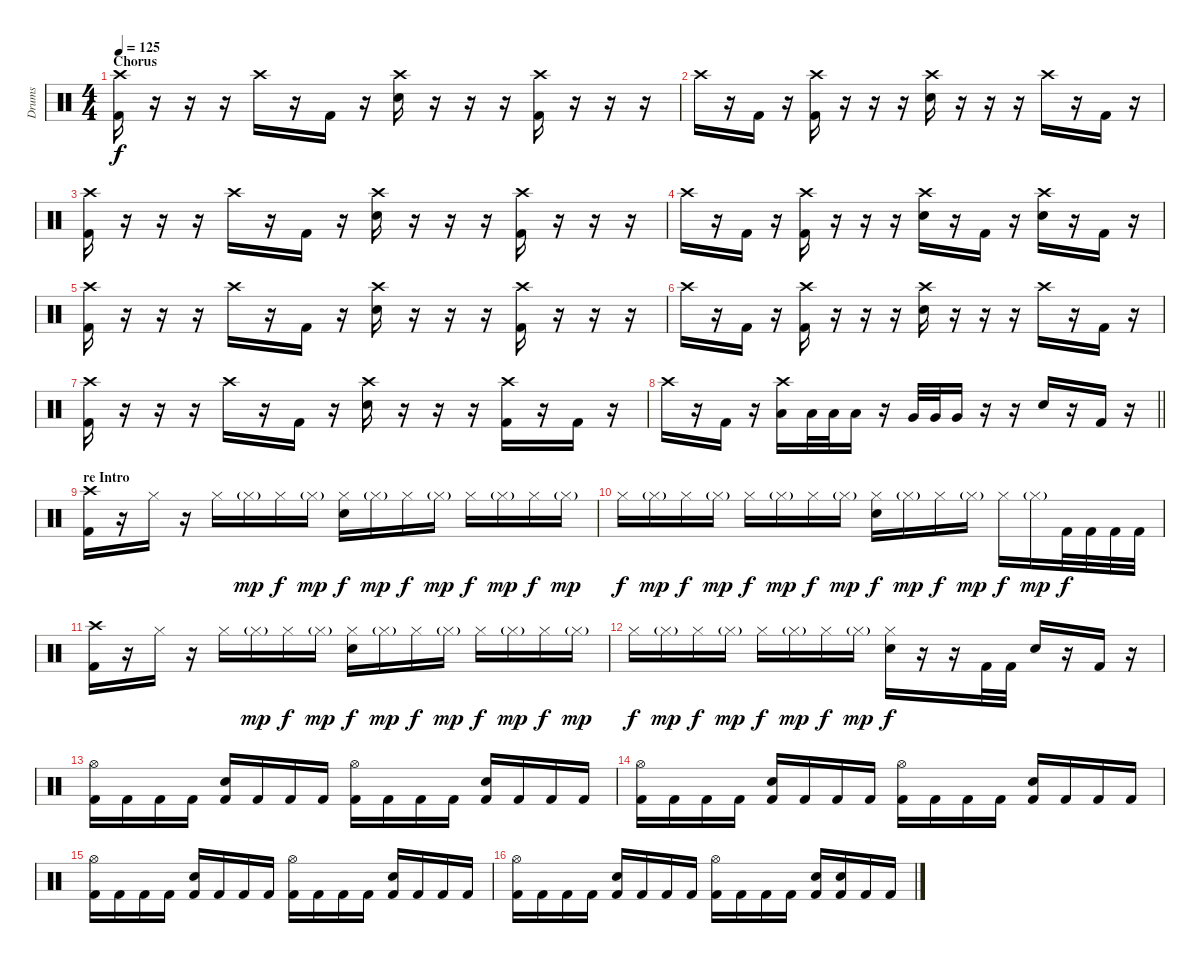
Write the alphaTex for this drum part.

\track ("Drums" "Drums") {instrument percussion}
\staff {score}
\articulation defaults
\ts (4 4)
\section ("" "Chorus")
\tempo 125
\clef neutral
\ks c
("Crash high (hit)" "Kick (hit) 2").16{dy f} r.16 r.16 r.16 "Crash high (hit)".16 r.16 "Kick (hit) 2".16 r.16 ("Crash high (hit)" "Electric Snare (hit)").16 r.16 r.16 r.16 ("Crash high (hit)" "Kick (hit) 2").16 r.16 r.16 r.16 |
"Crash high (hit)".16 r.16 "Kick (hit) 2".16 r.16 ("Crash high (hit)" "Kick (hit) 2").16 r.16 r.16 r.16 ("Crash high (hit)" "Electric Snare (hit)").16 r.16 r.16 r.16 "Crash high (hit)".16 r.16 "Kick (hit) 2".16 r.16 |
("Crash high (hit)" "Kick (hit) 2").16 r.16 r.16 r.16 "Crash high (hit)".16 r.16 "Kick (hit) 2".16 r.16 ("Crash high (hit)" "Electric Snare (hit)").16 r.16 r.16 r.16 ("Crash high (hit)" "Kick (hit) 2").16 r.16 r.16 r.16 |
"Crash high (hit)".16 r.16 "Kick (hit) 2".16 r.16 ("Crash high (hit)" "Kick (hit) 2").16 r.16 r.16 r.16 ("Crash high (hit)" "Electric Snare (hit)").16 r.16 "Kick (hit) 2".16 r.16 ("Crash high (hit)" "Electric Snare (hit)").16 r.16 "Kick (hit) 2".16 r.16 |
("Crash high (hit)" "Kick (hit) 2").16 r.16 r.16 r.16 "Crash high (hit)".16 r.16 "Kick (hit) 2".16 r.16 ("Crash high (hit)" "Electric Snare (hit)").16 r.16 r.16 r.16 ("Crash high (hit)" "Kick (hit) 2").16 r.16 r.16 r.16 |
"Crash high (hit)".16 r.16 "Kick (hit) 2".16 r.16 ("Crash high (hit)" "Kick (hit) 2").16 r.16 r.16 r.16 ("Crash high (hit)" "Electric Snare (hit)").16 r.16 r.16 r.16 "Crash high (hit)".16 r.16 "Kick (hit) 2".16 r.16 |
("Crash high (hit)" "Kick (hit) 2").16 r.16 r.16 r.16 "Crash high (hit)".16 r.16 "Kick (hit) 2".16 r.16 ("Crash high (hit)" "Electric Snare (hit)").16 r.16 r.16 r.16 ("Crash high (hit)" "Kick (hit) 2").16 r.16 "Kick (hit) 2".16 r.16 |
\barLineRight lightlight "Crash high (hit)".16
r.16 "Kick (hit) 2".16 r.16 ("Crash high (hit)" "Low Tom (hit)").16 "Low Tom (hit)".32 "Low Tom (hit)".32 "Low Tom (hit)".16 r.16 "Very Low Tom (hit)".32 "Very Low Tom (hit)".32 "Very Low Tom (hit)".16 r.16 r.16 "Electric Snare (hit)".16 r.16 "Kick (hit) 2".16 r.16 |
\section ("" "re Intro")
("Crash high (hit)" "Kick (hit) 2").16 r.16 "Hi-Hat (closed)".16 r.16 "Hi-Hat (closed)".16 "Hi-Hat (closed)"{g}.16{dy mp} "Hi-Hat (closed)".16{dy f} "Hi-Hat (closed)"{g}.16{dy mp} ("Hi-Hat (closed)" "Electric Snare (hit)").16{dy f} "Hi-Hat (closed)"{g}.16{dy mp} "Hi-Hat (closed)".16{dy f} "Hi-Hat (closed)"{g}.16{dy mp} "Hi-Hat (closed)".16{dy f} "Hi-Hat (closed)"{g}.16{dy mp} "Hi-Hat (closed)".16{dy f} "Hi-Hat (closed)"{g}.16{dy mp} |
"Hi-Hat (closed)".16{dy f} "Hi-Hat (closed)"{g}.16{dy mp} "Hi-Hat (closed)".16{dy f} "Hi-Hat (closed)"{g}.16{dy mp} "Hi-Hat (closed)".16{dy f} "Hi-Hat (closed)"{g}.16{dy mp} "Hi-Hat (closed)".16{dy f} "Hi-Hat (closed)"{g}.16{dy mp} ("Hi-Hat (closed)" "Electric Snare (hit)").16{dy f} "Hi-Hat (closed)"{g}.16{dy mp} "Hi-Hat (closed)".16{dy f} "Hi-Hat (closed)"{g}.16{dy mp} "Hi-Hat (closed)".16{dy f} "Hi-Hat (closed)"{g}.16{dy mp} "Kick (hit) 2".32{dy f} "Kick (hit) 2".32 "Kick (hit) 2".32 "Kick (hit) 2".32 |
("Crash high (hit)" "Kick (hit) 2").16 r.16 "Hi-Hat (closed)".16 r.16 "Hi-Hat (closed)".16 "Hi-Hat (closed)"{g}.16{dy mp} "Hi-Hat (closed)".16{dy f} "Hi-Hat (closed)"{g}.16{dy mp} ("Hi-Hat (closed)" "Electric Snare (hit)").16{dy f} "Hi-Hat (closed)"{g}.16{dy mp} "Hi-Hat (closed)".16{dy f} "Hi-Hat (closed)"{g}.16{dy mp} "Hi-Hat (closed)".16{dy f} "Hi-Hat (closed)"{g}.16{dy mp} "Hi-Hat (closed)".16{dy f} "Hi-Hat (closed)"{g}.16{dy mp} |
"Hi-Hat (closed)".16{dy f} "Hi-Hat (closed)"{g}.16{dy mp} "Hi-Hat (closed)".16{dy f} "Hi-Hat (closed)"{g}.16{dy mp} "Hi-Hat (closed)".16{dy f} "Hi-Hat (closed)"{g}.16{dy mp} "Hi-Hat (closed)".16{dy f} "Hi-Hat (closed)"{g}.16{dy mp} ("Hi-Hat (closed)" "Electric Snare (hit)").16{dy f} r.16 r.16 "Kick (hit) 2".32 "Kick (hit) 2".32 "Electric Snare (hit)".16 r.16 "Kick (hit) 2".16 r.16 |
("Hi-Hat (open)" "Kick (hit) 2").16 "Kick (hit) 2".16 "Kick (hit) 2".16 "Kick (hit) 2".16 ("Electric Snare (hit)" "Kick (hit) 2").16 "Kick (hit) 2".16 "Kick (hit) 2".16 "Kick (hit) 2".16 ("Hi-Hat (open)" "Kick (hit) 2").16 "Kick (hit) 2".16 "Kick (hit) 2".16 "Kick (hit) 2".16 ("Electric Snare (hit)" "Kick (hit) 2").16 "Kick (hit) 2".16 "Kick (hit) 2".16 "Kick (hit) 2".16 |
("Hi-Hat (open)" "Kick (hit) 2").16 "Kick (hit) 2".16 "Kick (hit) 2".16 "Kick (hit) 2".16 ("Electric Snare (hit)" "Kick (hit) 2").16 "Kick (hit) 2".16 "Kick (hit) 2".16 "Kick (hit) 2".16 ("Hi-Hat (open)" "Kick (hit) 2").16 "Kick (hit) 2".16 "Kick (hit) 2".16 "Kick (hit) 2".16 ("Electric Snare (hit)" "Kick (hit) 2").16 "Kick (hit) 2".16 "Kick (hit) 2".16 "Kick (hit) 2".16 |
("Hi-Hat (open)" "Kick (hit) 2").16 "Kick (hit) 2".16 "Kick (hit) 2".16 "Kick (hit) 2".16 ("Electric Snare (hit)" "Kick (hit) 2").16 "Kick (hit) 2".16 "Kick (hit) 2".16 "Kick (hit) 2".16 ("Hi-Hat (open)" "Kick (hit) 2").16 "Kick (hit) 2".16 "Kick (hit) 2".16 "Kick (hit) 2".16 ("Electric Snare (hit)" "Kick (hit) 2").16 "Kick (hit) 2".16 "Kick (hit) 2".16 "Kick (hit) 2".16 |
("Hi-Hat (open)" "Kick (hit) 2").16 "Kick (hit) 2".16 "Kick (hit) 2".16 "Kick (hit) 2".16 ("Electric Snare (hit)" "Kick (hit) 2").16 "Kick (hit) 2".16 "Kick (hit) 2".16 "Kick (hit) 2".16 ("Hi-Hat (open)" "Kick (hit) 2").16 "Kick (hit) 2".16 "Kick (hit) 2".16 "Kick (hit) 2".16 ("Electric Snare (hit)" "Kick (hit) 2").16 ("Electric Snare (hit)" "Kick (hit) 2").16 "Kick (hit) 2".16 "Kick (hit) 2".16
